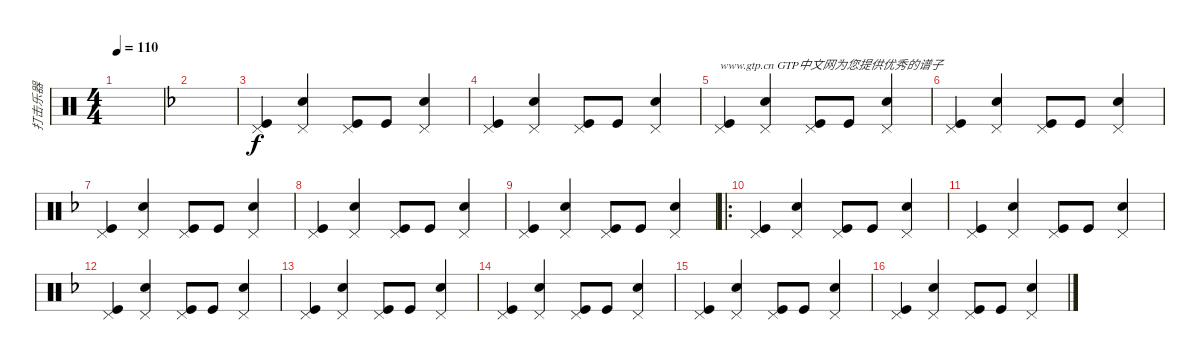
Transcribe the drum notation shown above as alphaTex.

\track ("打击乐器" "打击乐器") {instrument percussion}
\staff {score}
\articulation defaults
\ts (4 4)
\tempo 110
\clef neutral
\ks c
|
\ks f
|
("Pedal Hi-Hat (hit)" "Kick (hit)").4 ("Pedal Hi-Hat (hit)" "Snare (hit) 2").4 ("Pedal Hi-Hat (hit)" "Kick (hit)").8 "Kick (hit)".8 ("Pedal Hi-Hat (hit)" "Snare (hit) 2").4 |
("Pedal Hi-Hat (hit)" "Kick (hit)").4 ("Pedal Hi-Hat (hit)" "Snare (hit) 2").4 ("Pedal Hi-Hat (hit)" "Kick (hit)").8 "Kick (hit)".8 ("Pedal Hi-Hat (hit)" "Snare (hit) 2").4 |
("Pedal Hi-Hat (hit)" "Kick (hit)").4{txt "www.gtp.cn GTP中文网为您提供优秀的谱子"} ("Pedal Hi-Hat (hit)" "Snare (hit) 2").4 ("Pedal Hi-Hat (hit)" "Kick (hit)").8 "Kick (hit)".8 ("Pedal Hi-Hat (hit)" "Snare (hit) 2").4 |
("Pedal Hi-Hat (hit)" "Kick (hit)").4 ("Pedal Hi-Hat (hit)" "Snare (hit) 2").4 ("Pedal Hi-Hat (hit)" "Kick (hit)").8 "Kick (hit)".8 ("Pedal Hi-Hat (hit)" "Snare (hit) 2").4 |
("Pedal Hi-Hat (hit)" "Kick (hit)").4 ("Pedal Hi-Hat (hit)" "Snare (hit) 2").4 ("Pedal Hi-Hat (hit)" "Kick (hit)").8 "Kick (hit)".8 ("Pedal Hi-Hat (hit)" "Snare (hit) 2").4 |
("Pedal Hi-Hat (hit)" "Kick (hit)").4 ("Pedal Hi-Hat (hit)" "Snare (hit) 2").4 ("Pedal Hi-Hat (hit)" "Kick (hit)").8 "Kick (hit)".8 ("Pedal Hi-Hat (hit)" "Snare (hit) 2").4 |
("Pedal Hi-Hat (hit)" "Kick (hit)").4 ("Pedal Hi-Hat (hit)" "Snare (hit) 2").4 ("Pedal Hi-Hat (hit)" "Kick (hit)").8 "Kick (hit)".8 ("Pedal Hi-Hat (hit)" "Snare (hit) 2").4 |
\ro
("Pedal Hi-Hat (hit)" "Kick (hit)").4 ("Pedal Hi-Hat (hit)" "Snare (hit) 2").4 ("Pedal Hi-Hat (hit)" "Kick (hit)").8 "Kick (hit)".8 ("Pedal Hi-Hat (hit)" "Snare (hit) 2").4 |
("Pedal Hi-Hat (hit)" "Kick (hit)").4 ("Pedal Hi-Hat (hit)" "Snare (hit) 2").4 ("Pedal Hi-Hat (hit)" "Kick (hit)").8 "Kick (hit)".8 ("Pedal Hi-Hat (hit)" "Snare (hit) 2").4 |
("Pedal Hi-Hat (hit)" "Kick (hit)").4 ("Pedal Hi-Hat (hit)" "Snare (hit) 2").4 ("Pedal Hi-Hat (hit)" "Kick (hit)").8 "Kick (hit)".8 ("Pedal Hi-Hat (hit)" "Snare (hit) 2").4 |
("Pedal Hi-Hat (hit)" "Kick (hit)").4 ("Pedal Hi-Hat (hit)" "Snare (hit) 2").4 ("Pedal Hi-Hat (hit)" "Kick (hit)").8 "Kick (hit)".8 ("Pedal Hi-Hat (hit)" "Snare (hit) 2").4 |
("Pedal Hi-Hat (hit)" "Kick (hit)").4 ("Pedal Hi-Hat (hit)" "Snare (hit) 2").4 ("Pedal Hi-Hat (hit)" "Kick (hit)").8 "Kick (hit)".8 ("Pedal Hi-Hat (hit)" "Snare (hit) 2").4 |
("Pedal Hi-Hat (hit)" "Kick (hit)").4 ("Pedal Hi-Hat (hit)" "Snare (hit) 2").4 ("Pedal Hi-Hat (hit)" "Kick (hit)").8 "Kick (hit)".8 ("Pedal Hi-Hat (hit)" "Snare (hit) 2").4 |
("Pedal Hi-Hat (hit)" "Kick (hit)").4 ("Pedal Hi-Hat (hit)" "Snare (hit) 2").4 ("Pedal Hi-Hat (hit)" "Kick (hit)").8 "Kick (hit)".8 ("Pedal Hi-Hat (hit)" "Snare (hit) 2").4
